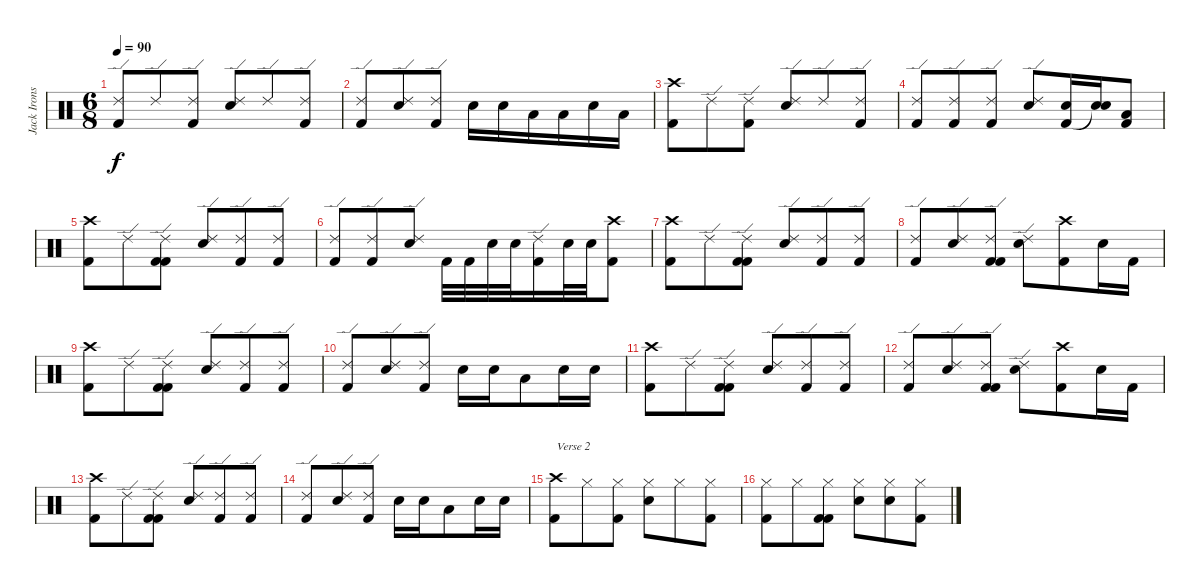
\track ("Jack Irons" "Jack Irons") {instrument percussion}
\staff {score}
\articulation defaults
\ts (6 8)
\tempo 90
\clef neutral
\ks c
("Ride (edge) 2" "Kick (hit) 2").8{dy f} "Ride (edge) 2".8 ("Ride (edge) 2" "Kick (hit) 2").8 ("Ride (edge) 2" "Snare (hit) 2").8 "Ride (edge) 2".8 ("Ride (edge) 2" "Kick (hit) 2").8 |
("Ride (edge) 2" "Kick (hit) 2").8 ("Ride (edge) 2" "Snare (hit) 2").8 ("Ride (edge) 2" "Kick (hit) 2").8 "Snare (hit) 2".16 "Snare (hit) 2".16 "Low Tom (hit)".16 "Low Tom (hit)".16 "Snare (hit) 2".16 "Low Tom (hit)".16 |
("Crash high (hit)" "Kick (hit) 2").8 "Ride (edge) 2".8 ("Ride (edge) 2" "Kick (hit) 2").8 ("Ride (edge) 2" "Snare (hit) 2").8 "Ride (edge) 2".8 ("Ride (edge) 2" "Kick (hit) 2").8 |
("Ride (edge) 2" "Kick (hit) 2").8 ("Ride (edge) 2" "Kick (hit) 2").8 ("Ride (edge) 2" "Kick (hit) 2").8 ("Ride (edge) 2" "Snare (hit) 2").8 ("Snare (hit) 2" "Kick (hit) 2").16 ("Snare (hit) 2" "Snare (hit)"{t}).16 ("Low Tom (hit)" "Kick (hit) 2").8 |
("Crash high (hit)" "Kick (hit) 2").8 "Ride (edge) 2".8 ("Ride (edge) 2" "Kick (hit) 2" "Kick (hit) 2").8 ("Ride (edge) 2" "Snare (hit) 2").8 ("Ride (edge) 2" "Kick (hit) 2").8 ("Ride (edge) 2" "Kick (hit) 2").8 |
("Ride (edge) 2" "Kick (hit) 2").8 ("Ride (edge) 2" "Kick (hit) 2").8 ("Ride (edge) 2" "Snare (hit) 2").8 "Kick (hit) 2".32 "Kick (hit) 2".32 "Snare (hit) 2".32 "Snare (hit) 2".32 ("Ride (edge) 2" "Kick (hit) 2").16 "Snare (hit) 2".32 "Snare (hit) 2".32 ("Crash high (hit)" "Kick (hit) 2").8 |
("Crash high (hit)" "Kick (hit) 2").8 "Ride (edge) 2".8 ("Ride (edge) 2" "Kick (hit) 2" "Kick (hit) 2").8 ("Ride (edge) 2" "Snare (hit) 2").8 ("Ride (edge) 2" "Kick (hit) 2").8 ("Ride (edge) 2" "Kick (hit) 2").8 |
("Ride (edge) 2" "Kick (hit) 2").8 ("Ride (edge) 2" "Snare (hit) 2").8 ("Ride (edge) 2" "Kick (hit) 2" "Kick (hit) 2").8 ("Ride (edge) 2" "Snare (hit) 2").8 ("Crash high (hit)" "Kick (hit) 2").8 "Snare (hit) 2".16 "Kick (hit) 2".16 |
("Crash high (hit)" "Kick (hit) 2").8 "Ride (edge) 2".8 ("Ride (edge) 2" "Kick (hit) 2" "Kick (hit) 2").8 ("Ride (edge) 2" "Snare (hit) 2").8 ("Ride (edge) 2" "Kick (hit) 2").8 ("Ride (edge) 2" "Kick (hit) 2").8 |
("Ride (edge) 2" "Kick (hit) 2").8 ("Ride (edge) 2" "Snare (hit) 2").8 ("Ride (edge) 2" "Kick (hit) 2").8 "Snare (hit) 2".16 "Snare (hit) 2".16 "Low Tom (hit)".8 "Snare (hit) 2".16 "Snare (hit) 2".16 |
("Crash high (hit)" "Kick (hit) 2").8 "Ride (edge) 2".8 ("Ride (edge) 2" "Kick (hit) 2" "Kick (hit) 2").8 ("Ride (edge) 2" "Snare (hit) 2").8 ("Ride (edge) 2" "Kick (hit) 2").8 ("Ride (edge) 2" "Kick (hit) 2").8 |
("Ride (edge) 2" "Kick (hit) 2").8 ("Ride (edge) 2" "Snare (hit) 2").8 ("Ride (edge) 2" "Kick (hit) 2" "Kick (hit) 2").8 ("Ride (edge) 2" "Snare (hit) 2").8 ("Crash high (hit)" "Kick (hit) 2").8 "Snare (hit) 2".16 "Kick (hit) 2".16 |
("Crash high (hit)" "Kick (hit) 2").8 "Ride (edge) 2".8 ("Ride (edge) 2" "Kick (hit) 2" "Kick (hit) 2").8 ("Ride (edge) 2" "Snare (hit) 2").8 ("Ride (edge) 2" "Kick (hit) 2").8 ("Ride (edge) 2" "Kick (hit) 2").8 |
("Ride (edge) 2" "Kick (hit) 2").8 ("Ride (edge) 2" "Snare (hit) 2").8 ("Ride (edge) 2" "Kick (hit) 2").8 "Snare (hit) 2".16 "Snare (hit) 2".16 "Low Tom (hit)".8 "Snare (hit) 2".16 "Snare (hit) 2".16 |
("Crash high (hit)" "Kick (hit) 2").8{txt "Verse 2"} "Hi-Hat (closed)".8 ("Hi-Hat (closed)" "Kick (hit) 2").8 ("Hi-Hat (closed)" "Snare (hit) 2").8 "Hi-Hat (closed)".8 ("Hi-Hat (closed)" "Kick (hit) 2").8 |
("Hi-Hat (closed)" "Kick (hit) 2").8 "Hi-Hat (closed)".8 ("Hi-Hat (closed)" "Kick (hit) 2" "Kick (hit) 2").8 ("Hi-Hat (closed)" "Snare (hit) 2").8 ("Hi-Hat (closed)" "Snare (hit) 2").8 ("Hi-Hat (closed)" "Kick (hit) 2").8
